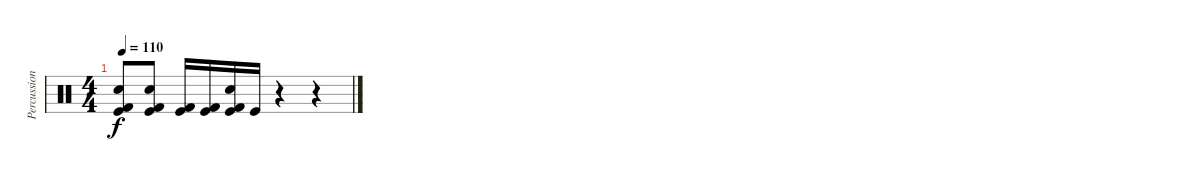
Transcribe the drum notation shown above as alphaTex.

\track ("Percussion" "Percussion") {instrument percussion}
\staff {score}
\articulation defaults
\ts (4 4)
\tempo 110
\clef neutral
\ks c
("Snare (hit) 2" "Kick (hit)" "Kick (hit) 2").8{dy f} ("Electric Snare (hit)" "Kick (hit)" "Kick (hit) 2").8 ("Kick (hit)" "Kick (hit) 2").16 ("Kick (hit)" "Kick (hit) 2").16 ("Electric Snare (hit)" "Kick (hit)" "Kick (hit) 2").16 "Kick (hit)".16 r.4 r.4
